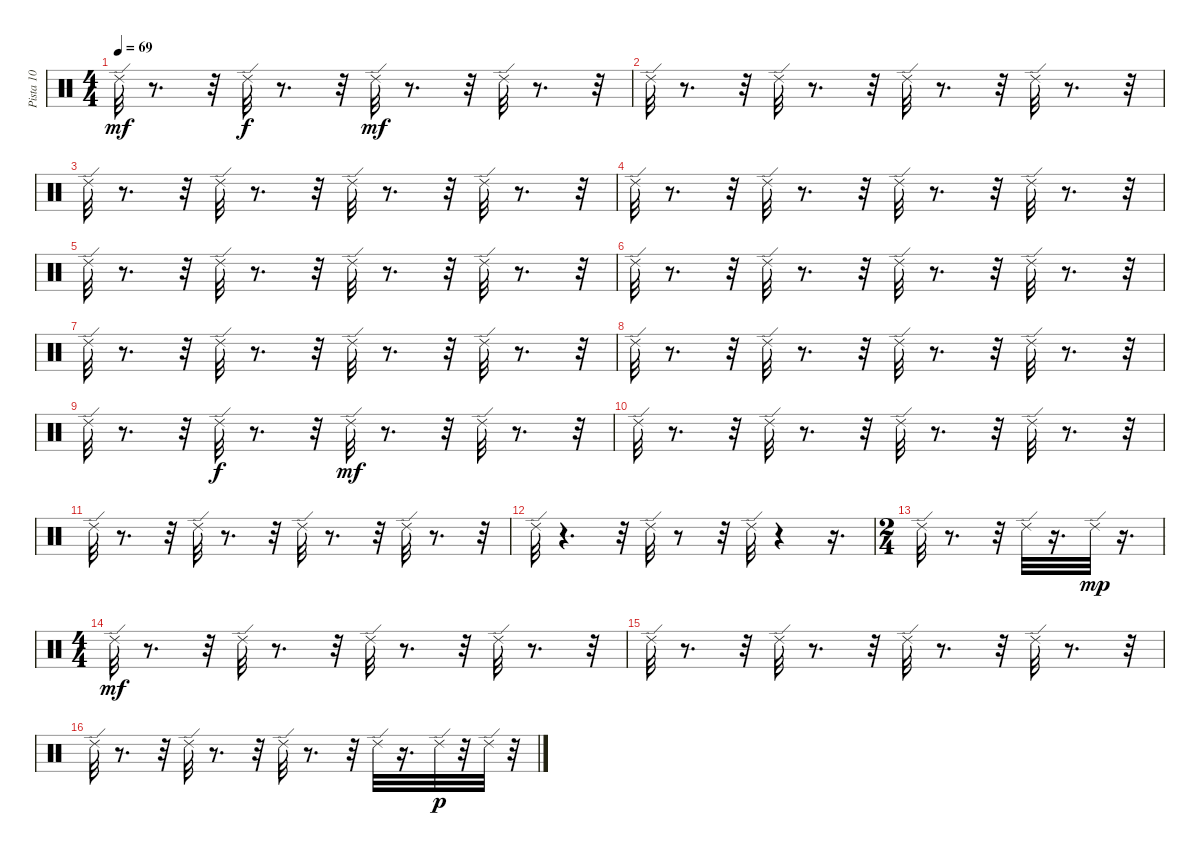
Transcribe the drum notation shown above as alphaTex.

\track ("Pista 10" "Pista 10") {instrument percussion}
\staff {score}
\articulation defaults
\ts (4 4)
\tempo 69
\clef neutral
\ks c "Ride (edge) 2".32{dy mf}
r.8{d} r.32 "Ride (edge) 2".32{dy f} r.8{d} r.32 "Ride (edge) 2".32{dy mf} r.8{d} r.32 "Ride (edge) 2".32 r.8{d} r.32 |
"Ride (edge) 2".32 r.8{d} r.32 "Ride (edge) 2".32 r.8{d} r.32 "Ride (edge) 2".32 r.8{d} r.32 "Ride (edge) 2".32 r.8{d} r.32 |
"Ride (edge) 2".32 r.8{d} r.32 "Ride (edge) 2".32 r.8{d} r.32 "Ride (edge) 2".32 r.8{d} r.32 "Ride (edge) 2".32 r.8{d} r.32 |
"Ride (edge) 2".32 r.8{d} r.32 "Ride (edge) 2".32 r.8{d} r.32 "Ride (edge) 2".32 r.8{d} r.32 "Ride (edge) 2".32 r.8{d} r.32 |
"Ride (edge) 2".32 r.8{d} r.32 "Ride (edge) 2".32 r.8{d} r.32 "Ride (edge) 2".32 r.8{d} r.32 "Ride (edge) 2".32 r.8{d} r.32 |
"Ride (edge) 2".32 r.8{d} r.32 "Ride (edge) 2".32 r.8{d} r.32 "Ride (edge) 2".32 r.8{d} r.32 "Ride (edge) 2".32 r.8{d} r.32 |
"Ride (edge) 2".32 r.8{d} r.32 "Ride (edge) 2".32 r.8{d} r.32 "Ride (edge) 2".32 r.8{d} r.32 "Ride (edge) 2".32 r.8{d} r.32 |
"Ride (edge) 2".32 r.8{d} r.32 "Ride (edge) 2".32 r.8{d} r.32 "Ride (edge) 2".32 r.8{d} r.32 "Ride (edge) 2".32 r.8{d} r.32 |
"Ride (edge) 2".32 r.8{d} r.32 "Ride (edge) 2".32{dy f} r.8{d} r.32 "Ride (edge) 2".32{dy mf} r.8{d} r.32 "Ride (edge) 2".32 r.8{d} r.32 |
"Ride (edge) 2".32 r.8{d} r.32 "Ride (edge) 2".32 r.8{d} r.32 "Ride (edge) 2".32 r.8{d} r.32 "Ride (edge) 2".32 r.8{d} r.32 |
"Ride (edge) 2".32 r.8{d} r.32 "Ride (edge) 2".32 r.8{d} r.32 "Ride (edge) 2".32 r.8{d} r.32 "Ride (edge) 2".32 r.8{d} r.32 |
"Ride (edge) 2".32 r.4{d} r.32 "Ride (edge) 2".32 r.8 r.32 "Ride (edge) 2".32 r.4 r.16{d} |
\ts (2 4)
"Ride (edge) 2".32 r.8{d} r.32 "Ride (edge) 2".32 r.16{d} "Ride (edge) 2".32{dy mp} r.16{d} |
\ts (4 4)
"Ride (edge) 2".32{dy mf} r.8{d} r.32 "Ride (edge) 2".32 r.8{d} r.32 "Ride (edge) 2".32 r.8{d} r.32 "Ride (edge) 2".32 r.8{d} r.32 |
"Ride (edge) 2".32 r.8{d} r.32 "Ride (edge) 2".32 r.8{d} r.32 "Ride (edge) 2".32 r.8{d} r.32 "Ride (edge) 2".32 r.8{d} r.32 |
"Ride (edge) 2".32 r.8{d} r.32 "Ride (edge) 2".32 r.8{d} r.32 "Ride (edge) 2".32 r.8{d} r.32 "Ride (edge) 2".32 r.16{d} "Ride (edge) 2".32{dy p} r.32 "Ride (edge) 2".32 r.32
